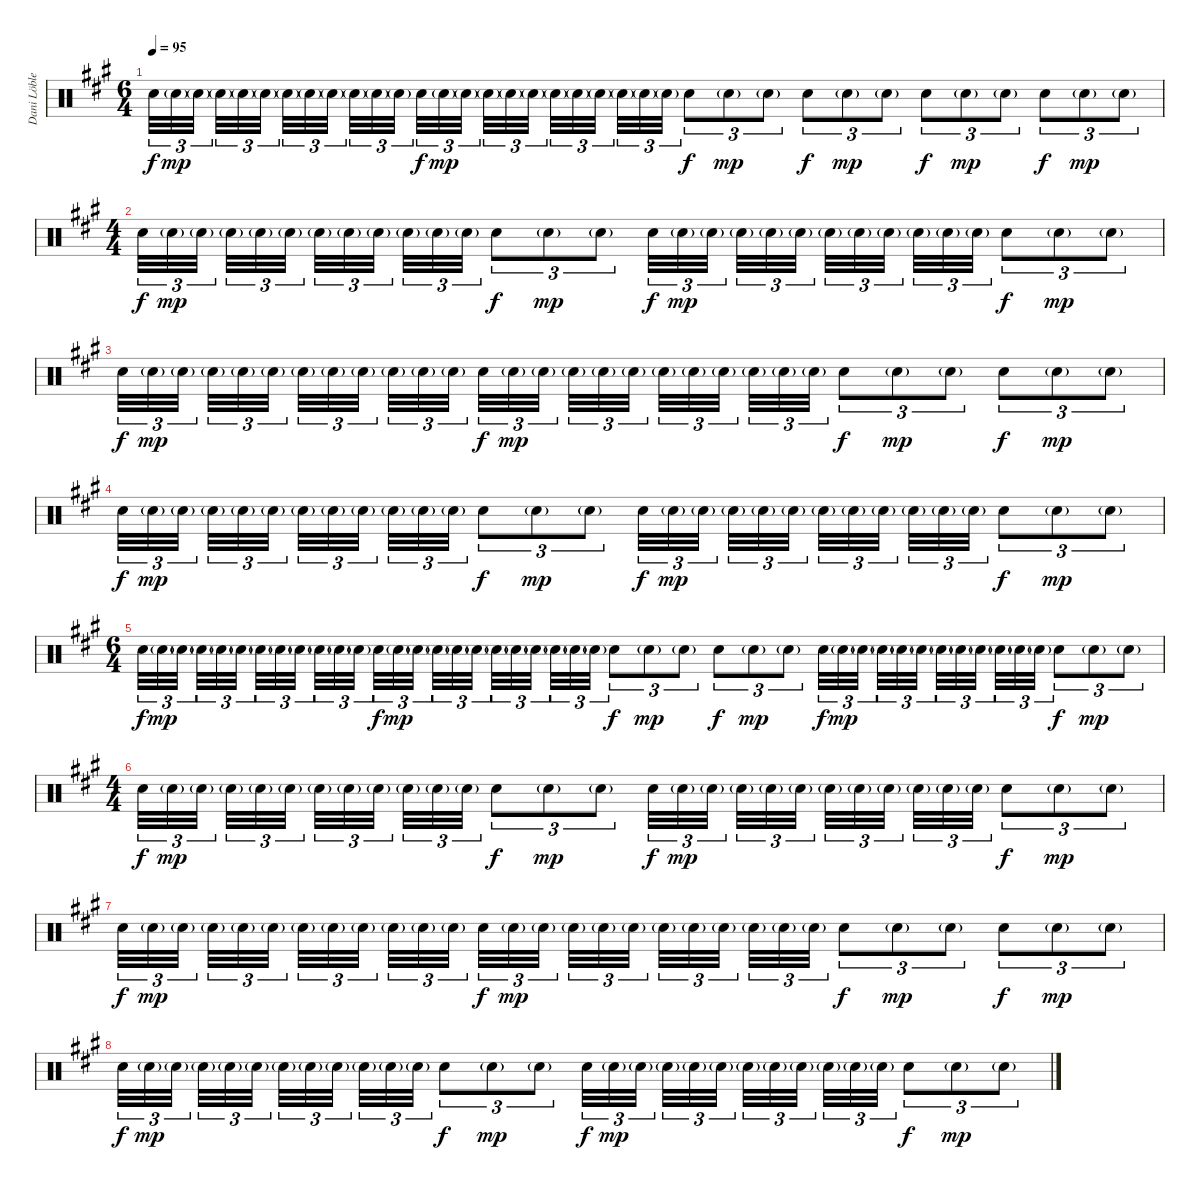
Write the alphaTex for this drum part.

\track ("Dani Löble" "Dani Löble") {instrument percussion}
\staff {score}
\articulation defaults
\ts (6 4)
\tempo 95
\clef neutral
\ks f#minor "Electric Snare (hit)".32{tu (3 2) dy f} "Electric Snare (hit)"{g}.32{tu (3 2) dy mp} "Electric Snare (hit)"{g}.32{tu (3 2) beam splitsecondary} "Electric Snare (hit)"{g}.32{tu (3 2)} "Electric Snare (hit)"{g}.32{tu (3 2)} "Electric Snare (hit)"{g}.32{tu (3 2) beam splitsecondary} "Electric Snare (hit)"{g}.32{tu (3 2)} "Electric Snare (hit)"{g}.32{tu (3 2)} "Electric Snare (hit)"{g}.32{tu (3 2) beam splitsecondary} "Electric Snare (hit)"{g}.32{tu (3 2)} "Electric Snare (hit)"{g}.32{tu (3 2)} "Electric Snare (hit)"{g}.32{tu (3 2) beam splitsecondary} "Electric Snare (hit)".32{tu (3 2) dy f} "Electric Snare (hit)"{g}.32{tu (3 2) dy mp} "Electric Snare (hit)"{g}.32{tu (3 2) beam splitsecondary} "Electric Snare (hit)"{g}.32{tu (3 2)} "Electric Snare (hit)"{g}.32{tu (3 2)} "Electric Snare (hit)"{g}.32{tu (3 2) beam splitsecondary} "Electric Snare (hit)"{g}.32{tu (3 2)} "Electric Snare (hit)"{g}.32{tu (3 2)} "Electric Snare (hit)"{g}.32{tu (3 2) beam splitsecondary} "Electric Snare (hit)"{g}.32{tu (3 2)} "Electric Snare (hit)"{g}.32{tu (3 2)} "Electric Snare (hit)"{g}.32{tu (3 2)} "Electric Snare (hit)".8{tu (3 2) dy f} "Electric Snare (hit)"{g}.8{tu (3 2) dy mp} "Electric Snare (hit)"{g}.8{tu (3 2)} "Electric Snare (hit)".8{tu (3 2) dy f} "Electric Snare (hit)"{g}.8{tu (3 2) dy mp} "Electric Snare (hit)"{g}.8{tu (3 2)} "Electric Snare (hit)".8{tu (3 2) dy f} "Electric Snare (hit)"{g}.8{tu (3 2) dy mp} "Electric Snare (hit)"{g}.8{tu (3 2)} "Electric Snare (hit)".8{tu (3 2) dy f} "Electric Snare (hit)"{g}.8{tu (3 2) dy mp} "Electric Snare (hit)"{g}.8{tu (3 2)}
|
\ts (4 4)
"Electric Snare (hit)".32{tu (3 2) dy f} "Electric Snare (hit)"{g}.32{tu (3 2) dy mp} "Electric Snare (hit)"{g}.32{tu (3 2) beam splitsecondary} "Electric Snare (hit)"{g}.32{tu (3 2)} "Electric Snare (hit)"{g}.32{tu (3 2)} "Electric Snare (hit)"{g}.32{tu (3 2) beam splitsecondary} "Electric Snare (hit)"{g}.32{tu (3 2)} "Electric Snare (hit)"{g}.32{tu (3 2)} "Electric Snare (hit)"{g}.32{tu (3 2) beam splitsecondary} "Electric Snare (hit)"{g}.32{tu (3 2)} "Electric Snare (hit)"{g}.32{tu (3 2)} "Electric Snare (hit)"{g}.32{tu (3 2)} "Electric Snare (hit)".8{tu (3 2) dy f} "Electric Snare (hit)"{g}.8{tu (3 2) dy mp} "Electric Snare (hit)"{g}.8{tu (3 2)} "Electric Snare (hit)".32{tu (3 2) dy f} "Electric Snare (hit)"{g}.32{tu (3 2) dy mp} "Electric Snare (hit)"{g}.32{tu (3 2) beam splitsecondary} "Electric Snare (hit)"{g}.32{tu (3 2)} "Electric Snare (hit)"{g}.32{tu (3 2)} "Electric Snare (hit)"{g}.32{tu (3 2) beam splitsecondary} "Electric Snare (hit)"{g}.32{tu (3 2)} "Electric Snare (hit)"{g}.32{tu (3 2)} "Electric Snare (hit)"{g}.32{tu (3 2) beam splitsecondary} "Electric Snare (hit)"{g}.32{tu (3 2)} "Electric Snare (hit)"{g}.32{tu (3 2)} "Electric Snare (hit)"{g}.32{tu (3 2)} "Electric Snare (hit)".8{tu (3 2) dy f} "Electric Snare (hit)"{g}.8{tu (3 2) dy mp} "Electric Snare (hit)"{g}.8{tu (3 2)} |
"Electric Snare (hit)".32{tu (3 2) dy f} "Electric Snare (hit)"{g}.32{tu (3 2) dy mp} "Electric Snare (hit)"{g}.32{tu (3 2) beam splitsecondary} "Electric Snare (hit)"{g}.32{tu (3 2)} "Electric Snare (hit)"{g}.32{tu (3 2)} "Electric Snare (hit)"{g}.32{tu (3 2) beam splitsecondary} "Electric Snare (hit)"{g}.32{tu (3 2)} "Electric Snare (hit)"{g}.32{tu (3 2)} "Electric Snare (hit)"{g}.32{tu (3 2) beam splitsecondary} "Electric Snare (hit)"{g}.32{tu (3 2)} "Electric Snare (hit)"{g}.32{tu (3 2)} "Electric Snare (hit)"{g}.32{tu (3 2)} "Electric Snare (hit)".32{tu (3 2) dy f} "Electric Snare (hit)"{g}.32{tu (3 2) dy mp} "Electric Snare (hit)"{g}.32{tu (3 2) beam splitsecondary} "Electric Snare (hit)"{g}.32{tu (3 2)} "Electric Snare (hit)"{g}.32{tu (3 2)} "Electric Snare (hit)"{g}.32{tu (3 2) beam splitsecondary} "Electric Snare (hit)"{g}.32{tu (3 2)} "Electric Snare (hit)"{g}.32{tu (3 2)} "Electric Snare (hit)"{g}.32{tu (3 2) beam splitsecondary} "Electric Snare (hit)"{g}.32{tu (3 2)} "Electric Snare (hit)"{g}.32{tu (3 2)} "Electric Snare (hit)"{g}.32{tu (3 2)} "Electric Snare (hit)".8{tu (3 2) dy f} "Electric Snare (hit)"{g}.8{tu (3 2) dy mp} "Electric Snare (hit)"{g}.8{tu (3 2)} "Electric Snare (hit)".8{tu (3 2) dy f} "Electric Snare (hit)"{g}.8{tu (3 2) dy mp} "Electric Snare (hit)"{g}.8{tu (3 2)} |
"Electric Snare (hit)".32{tu (3 2) dy f} "Electric Snare (hit)"{g}.32{tu (3 2) dy mp} "Electric Snare (hit)"{g}.32{tu (3 2) beam splitsecondary} "Electric Snare (hit)"{g}.32{tu (3 2)} "Electric Snare (hit)"{g}.32{tu (3 2)} "Electric Snare (hit)"{g}.32{tu (3 2) beam splitsecondary} "Electric Snare (hit)"{g}.32{tu (3 2)} "Electric Snare (hit)"{g}.32{tu (3 2)} "Electric Snare (hit)"{g}.32{tu (3 2) beam splitsecondary} "Electric Snare (hit)"{g}.32{tu (3 2)} "Electric Snare (hit)"{g}.32{tu (3 2)} "Electric Snare (hit)"{g}.32{tu (3 2)} "Electric Snare (hit)".8{tu (3 2) dy f} "Electric Snare (hit)"{g}.8{tu (3 2) dy mp} "Electric Snare (hit)"{g}.8{tu (3 2)} "Electric Snare (hit)".32{tu (3 2) dy f} "Electric Snare (hit)"{g}.32{tu (3 2) dy mp} "Electric Snare (hit)"{g}.32{tu (3 2) beam splitsecondary} "Electric Snare (hit)"{g}.32{tu (3 2)} "Electric Snare (hit)"{g}.32{tu (3 2)} "Electric Snare (hit)"{g}.32{tu (3 2) beam splitsecondary} "Electric Snare (hit)"{g}.32{tu (3 2)} "Electric Snare (hit)"{g}.32{tu (3 2)} "Electric Snare (hit)"{g}.32{tu (3 2) beam splitsecondary} "Electric Snare (hit)"{g}.32{tu (3 2)} "Electric Snare (hit)"{g}.32{tu (3 2)} "Electric Snare (hit)"{g}.32{tu (3 2)} "Electric Snare (hit)".8{tu (3 2) dy f} "Electric Snare (hit)"{g}.8{tu (3 2) dy mp} "Electric Snare (hit)"{g}.8{tu (3 2)} |
\ts (6 4)
"Electric Snare (hit)".32{tu (3 2) dy f} "Electric Snare (hit)"{g}.32{tu (3 2) dy mp} "Electric Snare (hit)"{g}.32{tu (3 2) beam splitsecondary} "Electric Snare (hit)"{g}.32{tu (3 2)} "Electric Snare (hit)"{g}.32{tu (3 2)} "Electric Snare (hit)"{g}.32{tu (3 2) beam splitsecondary} "Electric Snare (hit)"{g}.32{tu (3 2)} "Electric Snare (hit)"{g}.32{tu (3 2)} "Electric Snare (hit)"{g}.32{tu (3 2) beam splitsecondary} "Electric Snare (hit)"{g}.32{tu (3 2)} "Electric Snare (hit)"{g}.32{tu (3 2)} "Electric Snare (hit)"{g}.32{tu (3 2) beam splitsecondary} "Electric Snare (hit)".32{tu (3 2) dy f} "Electric Snare (hit)"{g}.32{tu (3 2) dy mp} "Electric Snare (hit)"{g}.32{tu (3 2) beam splitsecondary} "Electric Snare (hit)"{g}.32{tu (3 2)} "Electric Snare (hit)"{g}.32{tu (3 2)} "Electric Snare (hit)"{g}.32{tu (3 2) beam splitsecondary} "Electric Snare (hit)"{g}.32{tu (3 2)} "Electric Snare (hit)"{g}.32{tu (3 2)} "Electric Snare (hit)"{g}.32{tu (3 2) beam splitsecondary} "Electric Snare (hit)"{g}.32{tu (3 2)} "Electric Snare (hit)"{g}.32{tu (3 2)} "Electric Snare (hit)"{g}.32{tu (3 2)} "Electric Snare (hit)".8{tu (3 2) dy f} "Electric Snare (hit)"{g}.8{tu (3 2) dy mp} "Electric Snare (hit)"{g}.8{tu (3 2)} "Electric Snare (hit)".8{tu (3 2) dy f} "Electric Snare (hit)"{g}.8{tu (3 2) dy mp} "Electric Snare (hit)"{g}.8{tu (3 2)} "Electric Snare (hit)".32{tu (3 2) dy f} "Electric Snare (hit)"{g}.32{tu (3 2) dy mp} "Electric Snare (hit)"{g}.32{tu (3 2) beam splitsecondary} "Electric Snare (hit)"{g}.32{tu (3 2)} "Electric Snare (hit)"{g}.32{tu (3 2)} "Electric Snare (hit)"{g}.32{tu (3 2) beam splitsecondary} "Electric Snare (hit)"{g}.32{tu (3 2)} "Electric Snare (hit)"{g}.32{tu (3 2)} "Electric Snare (hit)"{g}.32{tu (3 2) beam splitsecondary} "Electric Snare (hit)"{g}.32{tu (3 2)} "Electric Snare (hit)"{g}.32{tu (3 2)} "Electric Snare (hit)"{g}.32{tu (3 2)} "Electric Snare (hit)".8{tu (3 2) dy f} "Electric Snare (hit)"{g}.8{tu (3 2) dy mp} "Electric Snare (hit)"{g}.8{tu (3 2)} |
\ts (4 4)
"Electric Snare (hit)".32{tu (3 2) dy f} "Electric Snare (hit)"{g}.32{tu (3 2) dy mp} "Electric Snare (hit)"{g}.32{tu (3 2) beam splitsecondary} "Electric Snare (hit)"{g}.32{tu (3 2)} "Electric Snare (hit)"{g}.32{tu (3 2)} "Electric Snare (hit)"{g}.32{tu (3 2) beam splitsecondary} "Electric Snare (hit)"{g}.32{tu (3 2)} "Electric Snare (hit)"{g}.32{tu (3 2)} "Electric Snare (hit)"{g}.32{tu (3 2) beam splitsecondary} "Electric Snare (hit)"{g}.32{tu (3 2)} "Electric Snare (hit)"{g}.32{tu (3 2)} "Electric Snare (hit)"{g}.32{tu (3 2)} "Electric Snare (hit)".8{tu (3 2) dy f} "Electric Snare (hit)"{g}.8{tu (3 2) dy mp} "Electric Snare (hit)"{g}.8{tu (3 2)} "Electric Snare (hit)".32{tu (3 2) dy f} "Electric Snare (hit)"{g}.32{tu (3 2) dy mp} "Electric Snare (hit)"{g}.32{tu (3 2) beam splitsecondary} "Electric Snare (hit)"{g}.32{tu (3 2)} "Electric Snare (hit)"{g}.32{tu (3 2)} "Electric Snare (hit)"{g}.32{tu (3 2) beam splitsecondary} "Electric Snare (hit)"{g}.32{tu (3 2)} "Electric Snare (hit)"{g}.32{tu (3 2)} "Electric Snare (hit)"{g}.32{tu (3 2) beam splitsecondary} "Electric Snare (hit)"{g}.32{tu (3 2)} "Electric Snare (hit)"{g}.32{tu (3 2)} "Electric Snare (hit)"{g}.32{tu (3 2)} "Electric Snare (hit)".8{tu (3 2) dy f} "Electric Snare (hit)"{g}.8{tu (3 2) dy mp} "Electric Snare (hit)"{g}.8{tu (3 2)} |
"Electric Snare (hit)".32{tu (3 2) dy f} "Electric Snare (hit)"{g}.32{tu (3 2) dy mp} "Electric Snare (hit)"{g}.32{tu (3 2) beam splitsecondary} "Electric Snare (hit)"{g}.32{tu (3 2)} "Electric Snare (hit)"{g}.32{tu (3 2)} "Electric Snare (hit)"{g}.32{tu (3 2) beam splitsecondary} "Electric Snare (hit)"{g}.32{tu (3 2)} "Electric Snare (hit)"{g}.32{tu (3 2)} "Electric Snare (hit)"{g}.32{tu (3 2) beam splitsecondary} "Electric Snare (hit)"{g}.32{tu (3 2)} "Electric Snare (hit)"{g}.32{tu (3 2)} "Electric Snare (hit)"{g}.32{tu (3 2)} "Electric Snare (hit)".32{tu (3 2) dy f} "Electric Snare (hit)"{g}.32{tu (3 2) dy mp} "Electric Snare (hit)"{g}.32{tu (3 2) beam splitsecondary} "Electric Snare (hit)"{g}.32{tu (3 2)} "Electric Snare (hit)"{g}.32{tu (3 2)} "Electric Snare (hit)"{g}.32{tu (3 2) beam splitsecondary} "Electric Snare (hit)"{g}.32{tu (3 2)} "Electric Snare (hit)"{g}.32{tu (3 2)} "Electric Snare (hit)"{g}.32{tu (3 2) beam splitsecondary} "Electric Snare (hit)"{g}.32{tu (3 2)} "Electric Snare (hit)"{g}.32{tu (3 2)} "Electric Snare (hit)"{g}.32{tu (3 2)} "Electric Snare (hit)".8{tu (3 2) dy f} "Electric Snare (hit)"{g}.8{tu (3 2) dy mp} "Electric Snare (hit)"{g}.8{tu (3 2)} "Electric Snare (hit)".8{tu (3 2) dy f} "Electric Snare (hit)"{g}.8{tu (3 2) dy mp} "Electric Snare (hit)"{g}.8{tu (3 2)} |
"Electric Snare (hit)".32{tu (3 2) dy f} "Electric Snare (hit)"{g}.32{tu (3 2) dy mp} "Electric Snare (hit)"{g}.32{tu (3 2) beam splitsecondary} "Electric Snare (hit)"{g}.32{tu (3 2)} "Electric Snare (hit)"{g}.32{tu (3 2)} "Electric Snare (hit)"{g}.32{tu (3 2) beam splitsecondary} "Electric Snare (hit)"{g}.32{tu (3 2)} "Electric Snare (hit)"{g}.32{tu (3 2)} "Electric Snare (hit)"{g}.32{tu (3 2) beam splitsecondary} "Electric Snare (hit)"{g}.32{tu (3 2)} "Electric Snare (hit)"{g}.32{tu (3 2)} "Electric Snare (hit)"{g}.32{tu (3 2)} "Electric Snare (hit)".8{tu (3 2) dy f} "Electric Snare (hit)"{g}.8{tu (3 2) dy mp} "Electric Snare (hit)"{g}.8{tu (3 2)} "Electric Snare (hit)".32{tu (3 2) dy f} "Electric Snare (hit)"{g}.32{tu (3 2) dy mp} "Electric Snare (hit)"{g}.32{tu (3 2) beam splitsecondary} "Electric Snare (hit)"{g}.32{tu (3 2)} "Electric Snare (hit)"{g}.32{tu (3 2)} "Electric Snare (hit)"{g}.32{tu (3 2) beam splitsecondary} "Electric Snare (hit)"{g}.32{tu (3 2)} "Electric Snare (hit)"{g}.32{tu (3 2)} "Electric Snare (hit)"{g}.32{tu (3 2) beam splitsecondary} "Electric Snare (hit)"{g}.32{tu (3 2)} "Electric Snare (hit)"{g}.32{tu (3 2)} "Electric Snare (hit)"{g}.32{tu (3 2)} "Electric Snare (hit)".8{tu (3 2) dy f} "Electric Snare (hit)"{g}.8{tu (3 2) dy mp} "Electric Snare (hit)"{g}.8{tu (3 2)}
